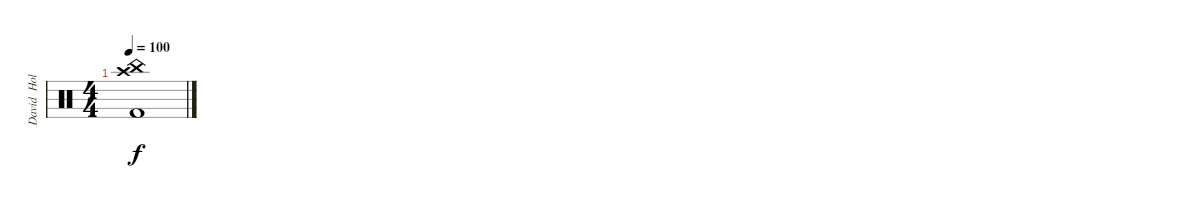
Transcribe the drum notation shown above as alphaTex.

\track ("David  Holland" "David  Hol") {instrument percussion}
\staff {score}
\articulation defaults
\ts (4 4)
\tempo 100
\clef neutral
\ks c
("Kick (hit) 2" "Crash high (hit)" "China (hit)").1{dy f}
